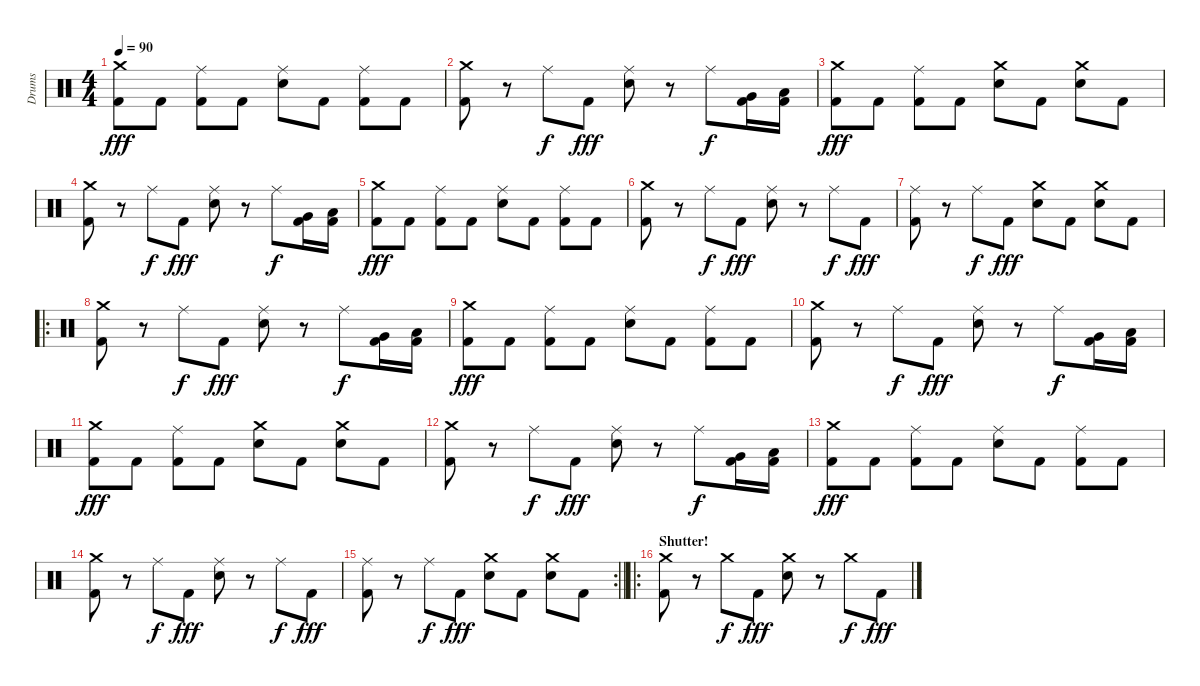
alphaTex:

\track ("Drums" "Drums") {instrument percussion}
\staff {score}
\articulation defaults
\ts (4 4)
\tempo 90
\clef neutral
\ks c
("Crash medium (hit)" "Kick (hit) 2").8{dy fff} "Kick (hit) 2".8 ("Ride (middle)" "Kick (hit) 2").8 "Kick (hit) 2".8 ("Ride (middle)" "Electric Snare (hit)").8 "Kick (hit) 2".8 ("Ride (middle)" "Kick (hit) 2").8 "Kick (hit) 2".8 |
("Crash medium (hit)" "Kick (hit) 2").8 r.8 "Ride (middle)".8{dy f} "Kick (hit) 2".8{dy fff} ("Ride (middle)" "Electric Snare (hit)").8 r.8 "Ride (middle)".8{dy f} ("Very Low Tom (hit)" "Kick (hit) 2").16 ("Low Tom (hit)" "Kick (hit) 2").16 |
("Crash medium (hit)" "Kick (hit) 2").8{dy fff} "Kick (hit) 2".8 ("Ride (middle)" "Kick (hit) 2").8 "Kick (hit) 2".8 ("Crash medium (hit)" "Electric Snare (hit)").8 "Kick (hit) 2".8 ("Crash medium (hit)" "Electric Snare (hit)").8 "Kick (hit) 2".8 |
("Crash medium (hit)" "Kick (hit) 2").8 r.8 "Ride (middle)".8{dy f} "Kick (hit) 2".8{dy fff} ("Ride (middle)" "Electric Snare (hit)").8 r.8 "Ride (middle)".8{dy f} ("Very Low Tom (hit)" "Kick (hit) 2").16 ("Low Tom (hit)" "Kick (hit) 2").16 |
("Crash medium (hit)" "Kick (hit) 2").8{dy fff} "Kick (hit) 2".8 ("Ride (middle)" "Kick (hit) 2").8 "Kick (hit) 2".8 ("Ride (middle)" "Electric Snare (hit)").8 "Kick (hit) 2".8 ("Ride (middle)" "Kick (hit) 2").8 "Kick (hit) 2".8 |
("Crash medium (hit)" "Kick (hit) 2").8 r.8 "Ride (middle)".8{dy f} "Kick (hit) 2".8{dy fff} ("Ride (middle)" "Electric Snare (hit)").8 r.8 "Ride (middle)".8{dy f} "Kick (hit) 2".8{dy fff} |
("Ride (middle)" "Kick (hit) 2").8 r.8 "Ride (middle)".8{dy f} "Kick (hit) 2".8{dy fff} ("Crash medium (hit)" "Electric Snare (hit)").8 "Kick (hit) 2".8 ("Crash medium (hit)" "Electric Snare (hit)").8 "Kick (hit) 2".8 |
\ro
("Crash medium (hit)" "Kick (hit) 2").8 r.8 "Ride (middle)".8{dy f} "Kick (hit) 2".8{dy fff} ("Ride (middle)" "Electric Snare (hit)").8 r.8 "Ride (middle)".8{dy f} ("Very Low Tom (hit)" "Kick (hit) 2").16 ("Low Tom (hit)" "Kick (hit) 2").16 |
("Crash medium (hit)" "Kick (hit) 2").8{dy fff} "Kick (hit) 2".8 ("Ride (middle)" "Kick (hit) 2").8 "Kick (hit) 2".8 ("Ride (middle)" "Electric Snare (hit)").8 "Kick (hit) 2".8 ("Ride (middle)" "Kick (hit) 2").8 "Kick (hit) 2".8 |
("Crash medium (hit)" "Kick (hit) 2").8 r.8 "Ride (middle)".8{dy f} "Kick (hit) 2".8{dy fff} ("Ride (middle)" "Electric Snare (hit)").8 r.8 "Ride (middle)".8{dy f} ("Very Low Tom (hit)" "Kick (hit) 2").16 ("Low Tom (hit)" "Kick (hit) 2").16 |
("Crash medium (hit)" "Kick (hit) 2").8{dy fff} "Kick (hit) 2".8 ("Ride (middle)" "Kick (hit) 2").8 "Kick (hit) 2".8 ("Crash medium (hit)" "Electric Snare (hit)").8 "Kick (hit) 2".8 ("Crash medium (hit)" "Electric Snare (hit)").8 "Kick (hit) 2".8 |
("Crash medium (hit)" "Kick (hit) 2").8 r.8 "Ride (middle)".8{dy f} "Kick (hit) 2".8{dy fff} ("Ride (middle)" "Electric Snare (hit)").8 r.8 "Ride (middle)".8{dy f} ("Very Low Tom (hit)" "Kick (hit) 2").16 ("Low Tom (hit)" "Kick (hit) 2").16 |
("Crash medium (hit)" "Kick (hit) 2").8{dy fff} "Kick (hit) 2".8 ("Ride (middle)" "Kick (hit) 2").8 "Kick (hit) 2".8 ("Ride (middle)" "Electric Snare (hit)").8 "Kick (hit) 2".8 ("Ride (middle)" "Kick (hit) 2").8 "Kick (hit) 2".8 |
("Crash medium (hit)" "Kick (hit) 2").8 r.8 "Ride (middle)".8{dy f} "Kick (hit) 2".8{dy fff} ("Ride (middle)" "Electric Snare (hit)").8 r.8 "Ride (middle)".8{dy f} "Kick (hit) 2".8{dy fff} |
\rc 2
\barLineRight lightlight
("Ride (middle)" "Kick (hit) 2").8 r.8 "Ride (middle)".8{dy f} "Kick (hit) 2".8{dy fff} ("Crash medium (hit)" "Electric Snare (hit)").8 "Kick (hit) 2".8 ("Crash medium (hit)" "Electric Snare (hit)").8 "Kick (hit) 2".8 |
\ro
\section ("" "Shutter!")
("Crash medium (hit)" "Kick (hit) 2").8 r.8 "Crash medium (hit)".8{dy f} "Kick (hit) 2".8{dy fff} ("Crash medium (hit)" "Electric Snare (hit)").8 r.8 "Crash medium (hit)".8{dy f} "Kick (hit) 2".8{dy fff}
